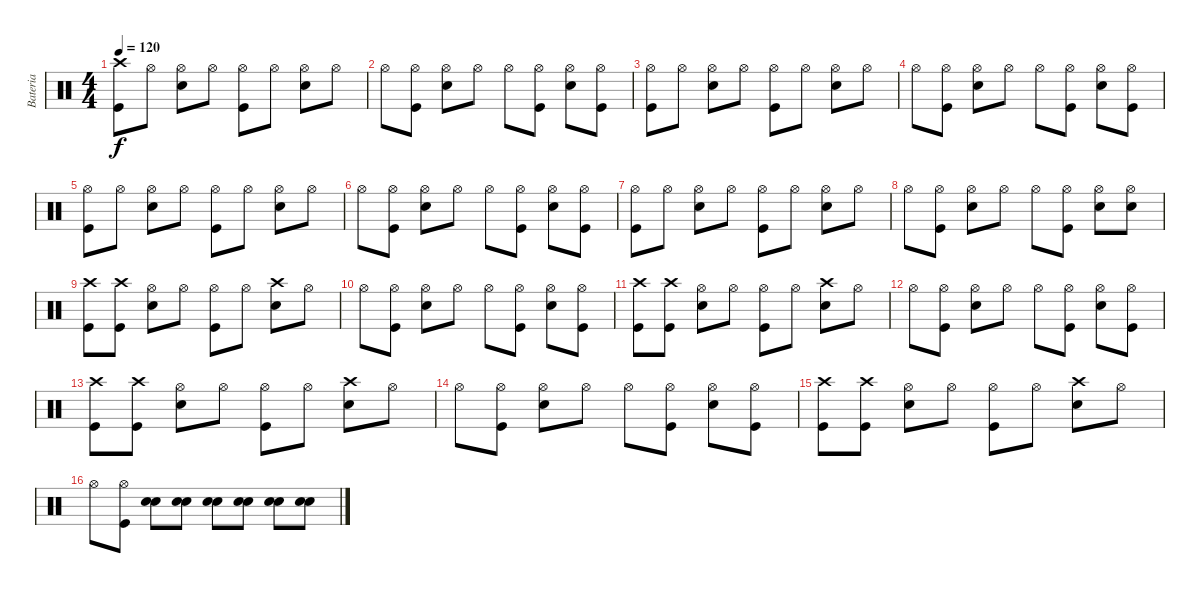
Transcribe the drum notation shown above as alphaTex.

\track ("Bateria" "Bateria") {instrument percussion}
\staff {score}
\articulation defaults
\ts (4 4)
\tempo 120
\clef neutral
\ks c
("Kick (hit)" "Crash high (hit)").8{dy f} "Hi-Hat (open)".8 ("Electric Snare (hit)" "Hi-Hat (open)").8 "Hi-Hat (open)".8 ("Kick (hit)" "Hi-Hat (open)").8 "Hi-Hat (open)".8 ("Electric Snare (hit)" "Hi-Hat (open)").8 "Hi-Hat (open)".8 |
"Hi-Hat (open)".8 ("Kick (hit)" "Hi-Hat (open)").8 ("Electric Snare (hit)" "Hi-Hat (open)").8 "Hi-Hat (open)".8 "Hi-Hat (open)".8 ("Kick (hit)" "Hi-Hat (open)").8 ("Electric Snare (hit)" "Hi-Hat (open)").8 ("Kick (hit)" "Hi-Hat (open)").8 |
("Kick (hit)" "Hi-Hat (open)").8 "Hi-Hat (open)".8 ("Electric Snare (hit)" "Hi-Hat (open)").8 "Hi-Hat (open)".8 ("Kick (hit)" "Hi-Hat (open)").8 "Hi-Hat (open)".8 ("Electric Snare (hit)" "Hi-Hat (open)").8 "Hi-Hat (open)".8 |
"Hi-Hat (open)".8 ("Kick (hit)" "Hi-Hat (open)").8 ("Electric Snare (hit)" "Hi-Hat (open)").8 "Hi-Hat (open)".8 "Hi-Hat (open)".8 ("Kick (hit)" "Hi-Hat (open)").8 ("Electric Snare (hit)" "Hi-Hat (open)").8 ("Kick (hit)" "Hi-Hat (open)").8 |
("Kick (hit)" "Hi-Hat (open)").8 "Hi-Hat (open)".8 ("Electric Snare (hit)" "Hi-Hat (open)").8 "Hi-Hat (open)".8 ("Kick (hit)" "Hi-Hat (open)").8 "Hi-Hat (open)".8 ("Electric Snare (hit)" "Hi-Hat (open)").8 "Hi-Hat (open)".8 |
"Hi-Hat (open)".8 ("Kick (hit)" "Hi-Hat (open)").8 ("Electric Snare (hit)" "Hi-Hat (open)").8 "Hi-Hat (open)".8 "Hi-Hat (open)".8 ("Kick (hit)" "Hi-Hat (open)").8 ("Electric Snare (hit)" "Hi-Hat (open)").8 ("Kick (hit)" "Hi-Hat (open)").8 |
("Kick (hit)" "Hi-Hat (open)").8 "Hi-Hat (open)".8 ("Electric Snare (hit)" "Hi-Hat (open)").8 "Hi-Hat (open)".8 ("Kick (hit)" "Hi-Hat (open)").8 "Hi-Hat (open)".8 ("Electric Snare (hit)" "Hi-Hat (open)").8 "Hi-Hat (open)".8 |
"Hi-Hat (open)".8 ("Kick (hit)" "Hi-Hat (open)").8 ("Electric Snare (hit)" "Hi-Hat (open)").8 "Hi-Hat (open)".8 "Hi-Hat (open)".8 ("Kick (hit)" "Hi-Hat (open)").8 ("Electric Snare (hit)" "Hi-Hat (open)").8 ("Electric Snare (hit)" "Hi-Hat (open)").8 |
("Kick (hit)" "Crash high (hit)").8 ("Kick (hit)" "Crash high (hit)").8 ("Electric Snare (hit)" "Hi-Hat (open)").8 "Hi-Hat (open)".8 ("Kick (hit)" "Hi-Hat (open)").8 "Hi-Hat (open)".8 ("Electric Snare (hit)" "Crash high (hit)").8 "Hi-Hat (open)".8 |
"Hi-Hat (open)".8 ("Kick (hit)" "Hi-Hat (open)").8 ("Electric Snare (hit)" "Hi-Hat (open)").8 "Hi-Hat (open)".8 "Hi-Hat (open)".8 ("Kick (hit)" "Hi-Hat (open)").8 ("Electric Snare (hit)" "Hi-Hat (open)").8 ("Kick (hit)" "Hi-Hat (open)").8 |
("Kick (hit)" "Crash high (hit)").8 ("Kick (hit)" "Crash high (hit)").8 ("Electric Snare (hit)" "Hi-Hat (open)").8 "Hi-Hat (open)".8 ("Kick (hit)" "Hi-Hat (open)").8 "Hi-Hat (open)".8 ("Electric Snare (hit)" "Crash high (hit)").8 "Hi-Hat (open)".8 |
"Hi-Hat (open)".8 ("Kick (hit)" "Hi-Hat (open)").8 ("Electric Snare (hit)" "Hi-Hat (open)").8 "Hi-Hat (open)".8 "Hi-Hat (open)".8 ("Kick (hit)" "Hi-Hat (open)").8 ("Electric Snare (hit)" "Hi-Hat (open)").8 ("Kick (hit)" "Hi-Hat (open)").8 |
("Kick (hit)" "Crash high (hit)").8 ("Kick (hit)" "Crash high (hit)").8 ("Electric Snare (hit)" "Hi-Hat (open)").8 "Hi-Hat (open)".8 ("Kick (hit)" "Hi-Hat (open)").8 "Hi-Hat (open)".8 ("Electric Snare (hit)" "Crash high (hit)").8 "Hi-Hat (open)".8 |
"Hi-Hat (open)".8 ("Kick (hit)" "Hi-Hat (open)").8 ("Electric Snare (hit)" "Hi-Hat (open)").8 "Hi-Hat (open)".8 "Hi-Hat (open)".8 ("Kick (hit)" "Hi-Hat (open)").8 ("Electric Snare (hit)" "Hi-Hat (open)").8 ("Kick (hit)" "Hi-Hat (open)").8 |
("Kick (hit)" "Crash high (hit)").8 ("Kick (hit)" "Crash high (hit)").8 ("Electric Snare (hit)" "Hi-Hat (open)").8 "Hi-Hat (open)".8 ("Kick (hit)" "Hi-Hat (open)").8 "Hi-Hat (open)".8 ("Electric Snare (hit)" "Crash high (hit)").8 "Hi-Hat (open)".8 |
"Hi-Hat (open)".8 ("Kick (hit)" "Hi-Hat (open)").8 ("Electric Snare (hit)" "Electric Snare (hit)").8 ("Electric Snare (hit)" "Electric Snare (hit)").8 ("Electric Snare (hit)" "Electric Snare (hit)").8 ("Electric Snare (hit)" "Electric Snare (hit)").8 ("Electric Snare (hit)" "Electric Snare (hit)").8 ("Electric Snare (hit)" "Electric Snare (hit)").8
